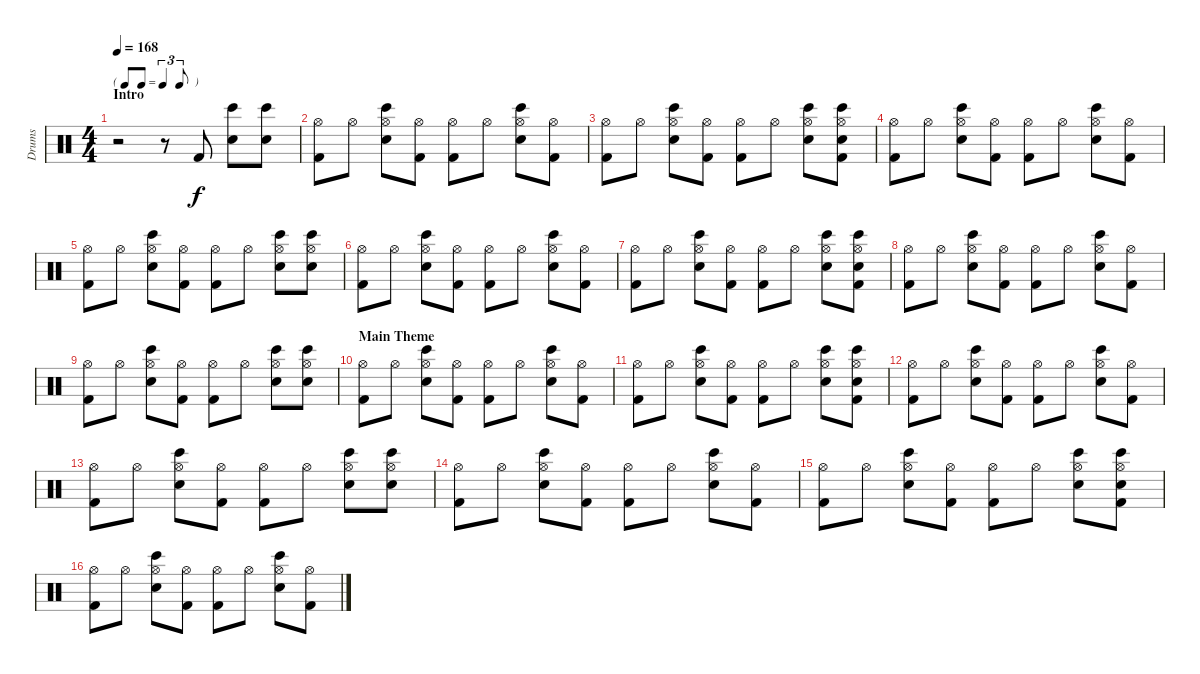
\track ("Drums" "Drums") {instrument percussion}
\staff {score}
\articulation defaults
\ts (4 4)
\tf triplet8th
\section ("" "Intro")
\tempo 168
\clef neutral
\ks c
r.2{dy f} r.8 "Kick (hit) 2".8 ("Bongo High (hit)" "Snare (hit) 2").8 ("Bongo High (hit)" "Snare (hit) 2").8 |
("Hi-Hat (open)" "Kick (hit) 2").8 "Hi-Hat (open)".8 ("Hi-Hat (open)" "Bongo High (hit)" "Snare (hit) 2").8 ("Hi-Hat (open)" "Kick (hit) 2").8 ("Hi-Hat (open)" "Kick (hit) 2").8 "Hi-Hat (open)".8 ("Hi-Hat (open)" "Bongo High (hit)" "Snare (hit) 2").8 ("Hi-Hat (open)" "Kick (hit) 2").8 |
("Hi-Hat (open)" "Kick (hit) 2").8 "Hi-Hat (open)".8 ("Hi-Hat (open)" "Bongo High (hit)" "Snare (hit) 2").8 ("Hi-Hat (open)" "Kick (hit) 2").8 ("Hi-Hat (open)" "Kick (hit) 2").8 "Hi-Hat (open)".8 ("Hi-Hat (open)" "Bongo High (hit)" "Snare (hit) 2").8 ("Hi-Hat (open)" "Bongo High (hit)" "Snare (hit) 2" "Kick (hit) 2").8 |
("Hi-Hat (open)" "Kick (hit) 2").8 "Hi-Hat (open)".8 ("Hi-Hat (open)" "Bongo High (hit)" "Snare (hit) 2").8 ("Hi-Hat (open)" "Kick (hit) 2").8 ("Hi-Hat (open)" "Kick (hit) 2").8 "Hi-Hat (open)".8 ("Hi-Hat (open)" "Bongo High (hit)" "Snare (hit) 2").8 ("Hi-Hat (open)" "Kick (hit) 2").8 |
("Hi-Hat (open)" "Kick (hit) 2").8 "Hi-Hat (open)".8 ("Hi-Hat (open)" "Bongo High (hit)" "Snare (hit) 2").8 ("Hi-Hat (open)" "Kick (hit) 2").8 ("Hi-Hat (open)" "Kick (hit) 2").8 "Hi-Hat (open)".8 ("Hi-Hat (open)" "Bongo High (hit)" "Snare (hit) 2").8 ("Hi-Hat (open)" "Bongo High (hit)" "Snare (hit) 2").8 |
("Hi-Hat (open)" "Kick (hit) 2").8 "Hi-Hat (open)".8 ("Hi-Hat (open)" "Bongo High (hit)" "Snare (hit) 2").8 ("Hi-Hat (open)" "Kick (hit) 2").8 ("Hi-Hat (open)" "Kick (hit) 2").8 "Hi-Hat (open)".8 ("Hi-Hat (open)" "Bongo High (hit)" "Snare (hit) 2").8 ("Hi-Hat (open)" "Kick (hit) 2").8 |
("Hi-Hat (open)" "Kick (hit) 2").8 "Hi-Hat (open)".8 ("Hi-Hat (open)" "Bongo High (hit)" "Snare (hit) 2").8 ("Hi-Hat (open)" "Kick (hit) 2").8 ("Hi-Hat (open)" "Kick (hit) 2").8 "Hi-Hat (open)".8 ("Hi-Hat (open)" "Bongo High (hit)" "Snare (hit) 2").8 ("Hi-Hat (open)" "Bongo High (hit)" "Snare (hit) 2" "Kick (hit) 2").8 |
("Hi-Hat (open)" "Kick (hit) 2").8 "Hi-Hat (open)".8 ("Hi-Hat (open)" "Bongo High (hit)" "Snare (hit) 2").8 ("Hi-Hat (open)" "Kick (hit) 2").8 ("Hi-Hat (open)" "Kick (hit) 2").8 "Hi-Hat (open)".8 ("Hi-Hat (open)" "Bongo High (hit)" "Snare (hit) 2").8 ("Hi-Hat (open)" "Kick (hit) 2").8 |
("Hi-Hat (open)" "Kick (hit) 2").8 "Hi-Hat (open)".8 ("Hi-Hat (open)" "Bongo High (hit)" "Snare (hit) 2").8 ("Hi-Hat (open)" "Kick (hit) 2").8 ("Hi-Hat (open)" "Kick (hit) 2").8 "Hi-Hat (open)".8 ("Hi-Hat (open)" "Bongo High (hit)" "Snare (hit) 2").8 ("Hi-Hat (open)" "Bongo High (hit)" "Snare (hit) 2").8 |
\section ("" "Main Theme")
("Hi-Hat (open)" "Kick (hit) 2").8 "Hi-Hat (open)".8 ("Hi-Hat (open)" "Bongo High (hit)" "Snare (hit) 2").8 ("Hi-Hat (open)" "Kick (hit) 2").8 ("Hi-Hat (open)" "Kick (hit) 2").8 "Hi-Hat (open)".8 ("Hi-Hat (open)" "Bongo High (hit)" "Snare (hit) 2").8 ("Hi-Hat (open)" "Kick (hit) 2").8 |
("Hi-Hat (open)" "Kick (hit) 2").8 "Hi-Hat (open)".8 ("Hi-Hat (open)" "Bongo High (hit)" "Snare (hit) 2").8 ("Hi-Hat (open)" "Kick (hit) 2").8 ("Hi-Hat (open)" "Kick (hit) 2").8 "Hi-Hat (open)".8 ("Hi-Hat (open)" "Bongo High (hit)" "Snare (hit) 2").8 ("Hi-Hat (open)" "Bongo High (hit)" "Snare (hit) 2" "Kick (hit) 2").8 |
("Hi-Hat (open)" "Kick (hit) 2").8 "Hi-Hat (open)".8 ("Hi-Hat (open)" "Bongo High (hit)" "Snare (hit) 2").8 ("Hi-Hat (open)" "Kick (hit) 2").8 ("Hi-Hat (open)" "Kick (hit) 2").8 "Hi-Hat (open)".8 ("Hi-Hat (open)" "Bongo High (hit)" "Snare (hit) 2").8 ("Hi-Hat (open)" "Kick (hit) 2").8 |
("Hi-Hat (open)" "Kick (hit) 2").8 "Hi-Hat (open)".8 ("Hi-Hat (open)" "Bongo High (hit)" "Snare (hit) 2").8 ("Hi-Hat (open)" "Kick (hit) 2").8 ("Hi-Hat (open)" "Kick (hit) 2").8 "Hi-Hat (open)".8 ("Hi-Hat (open)" "Bongo High (hit)" "Snare (hit) 2").8 ("Hi-Hat (open)" "Bongo High (hit)" "Snare (hit) 2").8 |
("Hi-Hat (open)" "Kick (hit) 2").8 "Hi-Hat (open)".8 ("Hi-Hat (open)" "Bongo High (hit)" "Snare (hit) 2").8 ("Hi-Hat (open)" "Kick (hit) 2").8 ("Hi-Hat (open)" "Kick (hit) 2").8 "Hi-Hat (open)".8 ("Hi-Hat (open)" "Bongo High (hit)" "Snare (hit) 2").8 ("Hi-Hat (open)" "Kick (hit) 2").8 |
("Hi-Hat (open)" "Kick (hit) 2").8 "Hi-Hat (open)".8 ("Hi-Hat (open)" "Bongo High (hit)" "Snare (hit) 2").8 ("Hi-Hat (open)" "Kick (hit) 2").8 ("Hi-Hat (open)" "Kick (hit) 2").8 "Hi-Hat (open)".8 ("Hi-Hat (open)" "Bongo High (hit)" "Snare (hit) 2").8 ("Hi-Hat (open)" "Bongo High (hit)" "Snare (hit) 2" "Kick (hit) 2").8 |
("Hi-Hat (open)" "Kick (hit) 2").8 "Hi-Hat (open)".8 ("Hi-Hat (open)" "Bongo High (hit)" "Snare (hit) 2").8 ("Hi-Hat (open)" "Kick (hit) 2").8 ("Hi-Hat (open)" "Kick (hit) 2").8 "Hi-Hat (open)".8 ("Hi-Hat (open)" "Bongo High (hit)" "Snare (hit) 2").8 ("Hi-Hat (open)" "Kick (hit) 2").8
